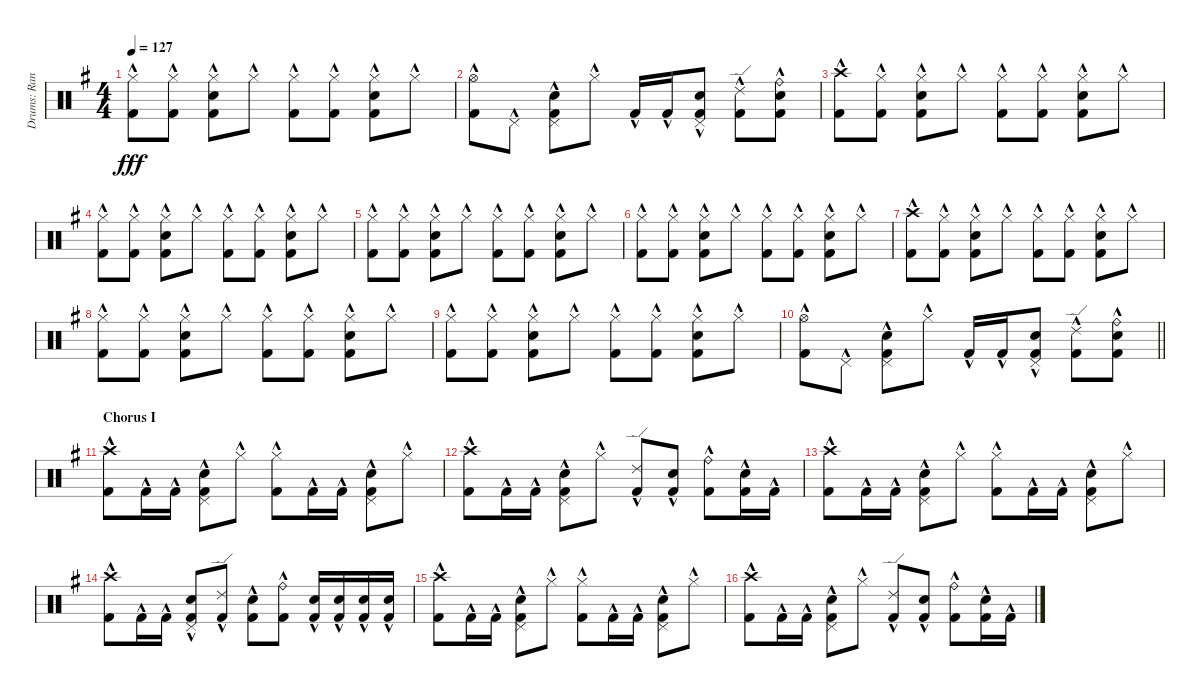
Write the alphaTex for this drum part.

\track ("Drums: Randy" "Drums: Ran") {instrument percussion}
\staff {score}
\articulation defaults
\ts (4 4)
\tempo 127
\clef neutral
\ks g
("Hi-Hat (closed)"{hac} "Kick (hit) 2"{hac}).8{dy fff} ("Hi-Hat (closed)"{hac} "Kick (hit) 2"{hac}).8 ("Hi-Hat (closed)"{hac} "Snare (hit) 2"{hac} "Kick (hit) 2"{hac}).8 "Hi-Hat (closed)"{hac}.8 ("Hi-Hat (closed)"{hac} "Kick (hit) 2"{hac}).8 ("Hi-Hat (closed)"{hac} "Kick (hit) 2"{hac}).8 ("Hi-Hat (closed)"{hac} "Snare (hit) 2"{hac} "Kick (hit) 2"{hac}).8 "Hi-Hat (closed)"{hac}.8 |
("Hi-Hat (open)"{hac} "Kick (hit) 2"{hac}).8 "Pedal Hi-Hat (hit)"{hac}.8 ("Pedal Hi-Hat (hit)"{hac} "Snare (hit) 2"{hac} "Kick (hit) 2"{hac}).8 "Hi-Hat (closed)"{hac}.8 "Kick (hit) 2"{hac}.16 "Kick (hit) 2"{hac}.16 ("Pedal Hi-Hat (hit)"{hac} "Snare (hit) 2"{hac} "Kick (hit) 2"{hac}).8 ("Ride (edge) 2"{hac} "Kick (hit) 2"{hac}).8 ("Ride (bell)"{hac} "Snare (hit) 2"{hac} "Kick (hit) 2"{hac}).8 |
("Crash high (hit)"{hac} "Kick (hit) 2"{hac}).8 ("Hi-Hat (closed)"{hac} "Kick (hit) 2"{hac}).8 ("Hi-Hat (closed)"{hac} "Snare (hit) 2"{hac} "Kick (hit) 2"{hac}).8 "Hi-Hat (closed)"{hac}.8 ("Hi-Hat (closed)"{hac} "Kick (hit) 2"{hac}).8 ("Hi-Hat (closed)"{hac} "Kick (hit) 2"{hac}).8 ("Hi-Hat (closed)"{hac} "Snare (hit) 2"{hac} "Kick (hit) 2"{hac}).8 "Hi-Hat (closed)"{hac}.8 |
("Hi-Hat (closed)"{hac} "Kick (hit) 2"{hac}).8 ("Hi-Hat (closed)"{hac} "Kick (hit) 2"{hac}).8 ("Hi-Hat (closed)"{hac} "Snare (hit) 2"{hac} "Kick (hit) 2"{hac}).8 "Hi-Hat (closed)"{hac}.8 ("Hi-Hat (closed)"{hac} "Kick (hit) 2"{hac}).8 ("Hi-Hat (closed)"{hac} "Kick (hit) 2"{hac}).8 ("Hi-Hat (closed)"{hac} "Snare (hit) 2"{hac} "Kick (hit) 2"{hac}).8 "Hi-Hat (closed)"{hac}.8 |
("Hi-Hat (closed)"{hac} "Kick (hit) 2"{hac}).8 ("Hi-Hat (closed)"{hac} "Kick (hit) 2"{hac}).8 ("Hi-Hat (closed)"{hac} "Snare (hit) 2"{hac} "Kick (hit) 2"{hac}).8 "Hi-Hat (closed)"{hac}.8 ("Hi-Hat (closed)"{hac} "Kick (hit) 2"{hac}).8 ("Hi-Hat (closed)"{hac} "Kick (hit) 2"{hac}).8 ("Hi-Hat (closed)"{hac} "Snare (hit) 2"{hac} "Kick (hit) 2"{hac}).8 "Hi-Hat (closed)"{hac}.8 |
("Hi-Hat (closed)"{hac} "Kick (hit) 2"{hac}).8 ("Hi-Hat (closed)"{hac} "Kick (hit) 2"{hac}).8 ("Hi-Hat (closed)"{hac} "Snare (hit) 2"{hac} "Kick (hit) 2"{hac}).8 "Hi-Hat (closed)"{hac}.8 ("Hi-Hat (closed)"{hac} "Kick (hit) 2"{hac}).8 ("Hi-Hat (closed)"{hac} "Kick (hit) 2"{hac}).8 ("Hi-Hat (closed)"{hac} "Snare (hit) 2"{hac} "Kick (hit) 2"{hac}).8 "Hi-Hat (closed)"{hac}.8 |
("Crash high (hit)"{hac} "Kick (hit) 2"{hac}).8 ("Hi-Hat (closed)"{hac} "Kick (hit) 2"{hac}).8 ("Hi-Hat (closed)"{hac} "Snare (hit) 2"{hac} "Kick (hit) 2"{hac}).8 "Hi-Hat (closed)"{hac}.8 ("Hi-Hat (closed)"{hac} "Kick (hit) 2"{hac}).8 ("Hi-Hat (closed)"{hac} "Kick (hit) 2"{hac}).8 ("Hi-Hat (closed)"{hac} "Snare (hit) 2"{hac} "Kick (hit) 2"{hac}).8 "Hi-Hat (closed)"{hac}.8 |
("Hi-Hat (closed)"{hac} "Kick (hit) 2"{hac}).8 ("Hi-Hat (closed)"{hac} "Kick (hit) 2"{hac}).8 ("Hi-Hat (closed)"{hac} "Snare (hit) 2"{hac} "Kick (hit) 2"{hac}).8 "Hi-Hat (closed)"{hac}.8 ("Hi-Hat (closed)"{hac} "Kick (hit) 2"{hac}).8 ("Hi-Hat (closed)"{hac} "Kick (hit) 2"{hac}).8 ("Hi-Hat (closed)"{hac} "Snare (hit) 2"{hac} "Kick (hit) 2"{hac}).8 "Hi-Hat (closed)"{hac}.8 |
("Hi-Hat (closed)"{hac} "Kick (hit) 2"{hac}).8 ("Hi-Hat (closed)"{hac} "Kick (hit) 2"{hac}).8 ("Hi-Hat (closed)"{hac} "Snare (hit) 2"{hac} "Kick (hit) 2"{hac}).8 "Hi-Hat (closed)"{hac}.8 ("Hi-Hat (closed)"{hac} "Kick (hit) 2"{hac}).8 ("Hi-Hat (closed)"{hac} "Kick (hit) 2"{hac}).8 ("Hi-Hat (closed)"{hac} "Snare (hit) 2"{hac} "Kick (hit) 2"{hac}).8 "Hi-Hat (closed)"{hac}.8 |
\barLineRight lightlight
("Hi-Hat (open)"{hac} "Kick (hit) 2"{hac}).8 "Pedal Hi-Hat (hit)"{hac}.8 ("Pedal Hi-Hat (hit)"{hac} "Snare (hit) 2"{hac} "Kick (hit) 2"{hac}).8 "Hi-Hat (closed)"{hac}.8 "Kick (hit) 2"{hac}.16 "Kick (hit) 2"{hac}.16 ("Pedal Hi-Hat (hit)"{hac} "Snare (hit) 2"{hac} "Kick (hit) 2"{hac}).8 ("Ride (edge) 2"{hac} "Kick (hit) 2"{hac}).8 ("Ride (bell)"{hac} "Snare (hit) 2"{hac} "Kick (hit) 2"{hac}).8 |
\section ("" "Chorus I")
("Crash high (hit)"{hac} "Kick (hit) 2"{hac}).8 "Kick (hit) 2"{hac}.16 "Kick (hit) 2"{hac}.16 ("Pedal Hi-Hat (hit)"{hac} "Snare (hit) 2"{hac} "Kick (hit) 2"{hac}).8 "Hi-Hat (closed)"{hac}.8 ("Hi-Hat (closed)"{hac} "Kick (hit) 2"{hac}).8 "Kick (hit) 2"{hac}.16 "Kick (hit) 2"{hac}.16 ("Pedal Hi-Hat (hit)"{hac} "Snare (hit) 2"{hac} "Kick (hit) 2"{hac}).8 "Hi-Hat (closed)"{hac}.8 |
("Crash high (hit)"{hac} "Kick (hit) 2"{hac}).8 "Kick (hit) 2"{hac}.16 "Kick (hit) 2"{hac}.16 ("Pedal Hi-Hat (hit)"{hac} "Snare (hit) 2"{hac} "Kick (hit) 2"{hac}).8 "Hi-Hat (closed)"{hac}.8 ("Ride (edge) 2"{hac} "Kick (hit) 2"{hac}).8 ("Snare (hit) 2"{hac} "Kick (hit) 2"{hac}).8 ("Ride (bell)"{hac} "Kick (hit) 2"{hac}).8 ("Snare (hit) 2"{hac} "Kick (hit) 2"{hac}).16 "Kick (hit) 2"{hac}.16 |
("Crash high (hit)"{hac} "Kick (hit) 2"{hac}).8 "Kick (hit) 2"{hac}.16 "Kick (hit) 2"{hac}.16 ("Pedal Hi-Hat (hit)"{hac} "Snare (hit) 2"{hac} "Kick (hit) 2"{hac}).8 "Hi-Hat (closed)"{hac}.8 ("Hi-Hat (closed)"{hac} "Kick (hit) 2"{hac}).8 "Kick (hit) 2"{hac}.16 "Kick (hit) 2"{hac}.16 ("Pedal Hi-Hat (hit)"{hac} "Snare (hit) 2"{hac} "Kick (hit) 2"{hac}).8 "Hi-Hat (closed)"{hac}.8 |
("Crash high (hit)"{hac} "Kick (hit) 2"{hac}).8 "Kick (hit) 2"{hac}.16 "Kick (hit) 2"{hac}.16 ("Pedal Hi-Hat (hit)"{hac} "Snare (hit) 2"{hac} "Kick (hit) 2"{hac}).8 ("Ride (edge) 2"{hac} "Kick (hit) 2"{hac}).8 ("Snare (hit) 2"{hac} "Kick (hit) 2"{hac}).8 ("Ride (bell)"{hac} "Kick (hit) 2"{hac}).8 ("Snare (hit) 2"{hac} "Kick (hit) 2"{hac}).16 ("Snare (hit) 2"{hac} "Kick (hit) 2"{hac}).16 ("Snare (hit) 2"{hac} "Kick (hit) 2"{hac}).16 ("Snare (hit) 2"{hac} "Kick (hit) 2"{hac}).16 |
("Crash high (hit)"{hac} "Kick (hit) 2"{hac}).8 "Kick (hit) 2"{hac}.16 "Kick (hit) 2"{hac}.16 ("Pedal Hi-Hat (hit)"{hac} "Snare (hit) 2"{hac} "Kick (hit) 2"{hac}).8 "Hi-Hat (closed)"{hac}.8 ("Hi-Hat (closed)"{hac} "Kick (hit) 2"{hac}).8 "Kick (hit) 2"{hac}.16 "Kick (hit) 2"{hac}.16 ("Pedal Hi-Hat (hit)"{hac} "Snare (hit) 2"{hac} "Kick (hit) 2"{hac}).8 "Hi-Hat (closed)"{hac}.8 |
("Crash high (hit)"{hac} "Kick (hit) 2"{hac}).8 "Kick (hit) 2"{hac}.16 "Kick (hit) 2"{hac}.16 ("Pedal Hi-Hat (hit)"{hac} "Snare (hit) 2"{hac} "Kick (hit) 2"{hac}).8 "Hi-Hat (closed)"{hac}.8 ("Ride (edge) 2"{hac} "Kick (hit) 2"{hac}).8 ("Snare (hit) 2"{hac} "Kick (hit) 2"{hac}).8 ("Ride (bell)"{hac} "Kick (hit) 2"{hac}).8 ("Snare (hit) 2"{hac} "Kick (hit) 2"{hac}).16 "Kick (hit) 2"{hac}.16
